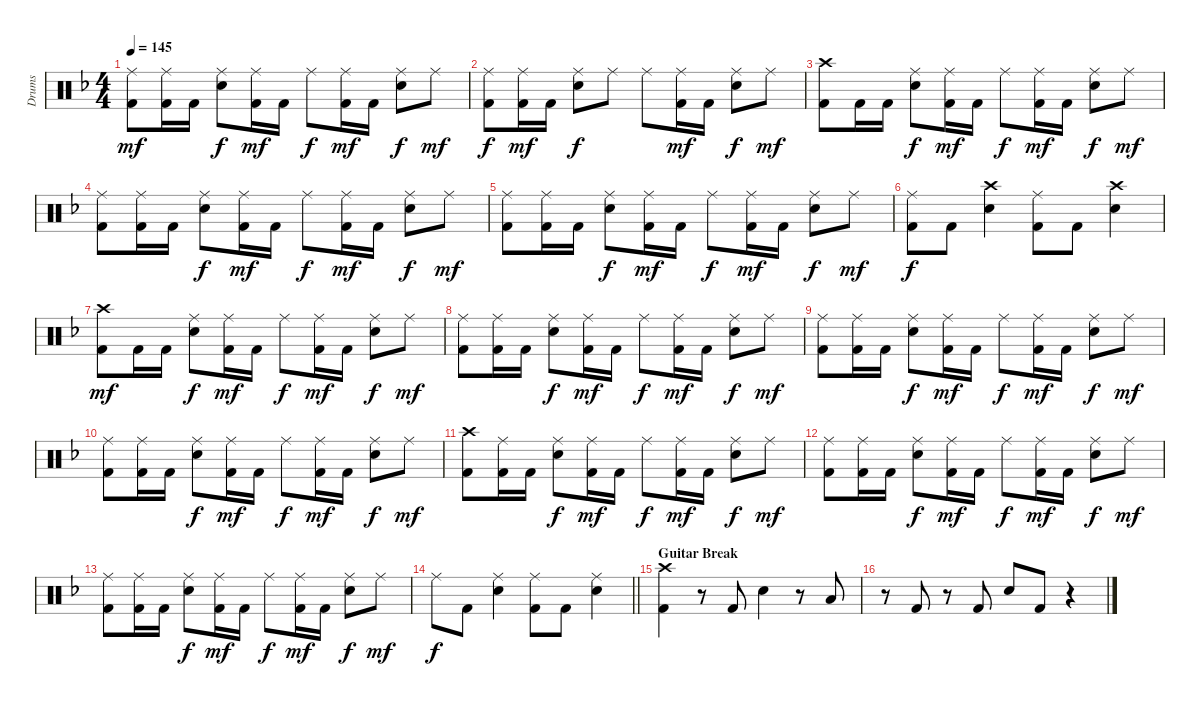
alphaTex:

\track ("Drums" "Drums") {instrument percussion}
\staff {score}
\articulation defaults
\ts (4 4)
\tempo 145
\clef neutral
\ks f
("Ride (middle)" "Kick (hit) 2").8{dy mf} ("Ride (middle)" "Kick (hit) 2").16 "Kick (hit) 2".16 ("Ride (middle)" "Electric Snare (hit)").8{dy f} ("Ride (middle)" "Kick (hit) 2").16{dy mf} "Kick (hit) 2".16 "Ride (middle)".8{dy f} ("Ride (middle)" "Kick (hit) 2").16{dy mf} "Kick (hit) 2".16 ("Ride (middle)" "Electric Snare (hit)").8{dy f} "Ride (middle)".8{dy mf} |
("Ride (middle)" "Kick (hit) 2").8{dy f} ("Ride (middle)" "Kick (hit) 2").16{dy mf} "Kick (hit) 2".16 ("Ride (middle)" "Electric Snare (hit)").8{dy f} "Ride (middle)".8 "Ride (middle)".8 ("Ride (middle)" "Kick (hit) 2").16{dy mf} "Kick (hit) 2".16 ("Ride (middle)" "Electric Snare (hit)").8{dy f} "Ride (middle)".8{dy mf} |
("Crash high (hit)" "Kick (hit) 2").8 "Kick (hit) 2".16 "Kick (hit) 2".16 ("Ride (middle)" "Electric Snare (hit)").8{dy f} ("Ride (middle)" "Kick (hit) 2").16{dy mf} "Kick (hit) 2".16 "Ride (middle)".8{dy f} ("Ride (middle)" "Kick (hit) 2").16{dy mf} "Kick (hit) 2".16 ("Ride (middle)" "Electric Snare (hit)").8{dy f} "Ride (middle)".8{dy mf} |
("Ride (middle)" "Kick (hit) 2").8 ("Ride (middle)" "Kick (hit) 2").16 "Kick (hit) 2".16 ("Ride (middle)" "Electric Snare (hit)").8{dy f} ("Ride (middle)" "Kick (hit) 2").16{dy mf} "Kick (hit) 2".16 "Ride (middle)".8{dy f} ("Ride (middle)" "Kick (hit) 2").16{dy mf} "Kick (hit) 2".16 ("Ride (middle)" "Electric Snare (hit)").8{dy f} "Ride (middle)".8{dy mf} |
("Ride (middle)" "Kick (hit) 2").8 ("Ride (middle)" "Kick (hit) 2").16 "Kick (hit) 2".16 ("Ride (middle)" "Electric Snare (hit)").8{dy f} ("Ride (middle)" "Kick (hit) 2").16{dy mf} "Kick (hit) 2".16 "Ride (middle)".8{dy f} ("Ride (middle)" "Kick (hit) 2").16{dy mf} "Kick (hit) 2".16 ("Ride (middle)" "Electric Snare (hit)").8{dy f} "Ride (middle)".8{dy mf} |
("Ride (middle)" "Kick (hit) 2").8{dy f} "Kick (hit) 2".8 ("Crash high (hit)" "Electric Snare (hit)").4 ("Ride (middle)" "Kick (hit) 2").8 "Kick (hit) 2".8 ("Crash high (hit)" "Electric Snare (hit)").4 |
("Crash high (hit)" "Kick (hit) 2").8{dy mf} "Kick (hit) 2".16 "Kick (hit) 2".16 ("Ride (middle)" "Electric Snare (hit)").8{dy f} ("Ride (middle)" "Kick (hit) 2").16{dy mf} "Kick (hit) 2".16 "Ride (middle)".8{dy f} ("Ride (middle)" "Kick (hit) 2").16{dy mf} "Kick (hit) 2".16 ("Ride (middle)" "Electric Snare (hit)").8{dy f} "Ride (middle)".8{dy mf} |
("Ride (middle)" "Kick (hit) 2").8 ("Ride (middle)" "Kick (hit) 2").16 "Kick (hit) 2".16 ("Ride (middle)" "Electric Snare (hit)").8{dy f} ("Ride (middle)" "Kick (hit) 2").16{dy mf} "Kick (hit) 2".16 "Ride (middle)".8{dy f} ("Ride (middle)" "Kick (hit) 2").16{dy mf} "Kick (hit) 2".16 ("Ride (middle)" "Electric Snare (hit)").8{dy f} "Ride (middle)".8{dy mf} |
("Ride (middle)" "Kick (hit) 2").8 ("Ride (middle)" "Kick (hit) 2").16 "Kick (hit) 2".16 ("Ride (middle)" "Electric Snare (hit)").8{dy f} ("Ride (middle)" "Kick (hit) 2").16{dy mf} "Kick (hit) 2".16 "Ride (middle)".8{dy f} ("Ride (middle)" "Kick (hit) 2").16{dy mf} "Kick (hit) 2".16 ("Ride (middle)" "Electric Snare (hit)").8{dy f} "Ride (middle)".8{dy mf} |
("Ride (middle)" "Kick (hit) 2").8 ("Ride (middle)" "Kick (hit) 2").16 "Kick (hit) 2".16 ("Ride (middle)" "Electric Snare (hit)").8{dy f} ("Ride (middle)" "Kick (hit) 2").16{dy mf} "Kick (hit) 2".16 "Ride (middle)".8{dy f} ("Ride (middle)" "Kick (hit) 2").16{dy mf} "Kick (hit) 2".16 ("Ride (middle)" "Electric Snare (hit)").8{dy f} "Ride (middle)".8{dy mf} |
("Crash high (hit)" "Kick (hit) 2").8 ("Ride (middle)" "Kick (hit) 2").16 "Kick (hit) 2".16 ("Ride (middle)" "Electric Snare (hit)").8{dy f} ("Ride (middle)" "Kick (hit) 2").16{dy mf} "Kick (hit) 2".16 "Ride (middle)".8{dy f} ("Ride (middle)" "Kick (hit) 2").16{dy mf} "Kick (hit) 2".16 ("Ride (middle)" "Electric Snare (hit)").8{dy f} "Ride (middle)".8{dy mf} |
("Ride (middle)" "Kick (hit) 2").8 ("Ride (middle)" "Kick (hit) 2").16 "Kick (hit) 2".16 ("Ride (middle)" "Electric Snare (hit)").8{dy f} ("Ride (middle)" "Kick (hit) 2").16{dy mf} "Kick (hit) 2".16 "Ride (middle)".8{dy f} ("Ride (middle)" "Kick (hit) 2").16{dy mf} "Kick (hit) 2".16 ("Ride (middle)" "Electric Snare (hit)").8{dy f} "Ride (middle)".8{dy mf} |
("Ride (middle)" "Kick (hit) 2").8 ("Ride (middle)" "Kick (hit) 2").16 "Kick (hit) 2".16 ("Ride (middle)" "Electric Snare (hit)").8{dy f} ("Ride (middle)" "Kick (hit) 2").16{dy mf} "Kick (hit) 2".16 "Ride (middle)".8{dy f} ("Ride (middle)" "Kick (hit) 2").16{dy mf} "Kick (hit) 2".16 ("Ride (middle)" "Electric Snare (hit)").8{dy f} "Ride (middle)".8{dy mf} |
\barLineRight lightlight "Ride (middle)".8{dy f} "Kick (hit) 2".8
("Ride (middle)" "Electric Snare (hit)").4 ("Ride (middle)" "Kick (hit) 2").8 "Kick (hit) 2".8 ("Ride (middle)" "Electric Snare (hit)").4 |
\section ("" "Guitar Break")
("Crash high (hit)" "Kick (hit) 2").4 r.8 "Kick (hit) 2".8 "Electric Snare (hit)".4 r.8 "Low Tom (hit)".8 |
r.8 "Kick (hit) 2".8 r.8 "Kick (hit) 2".8 "Electric Snare (hit)".8 "Kick (hit) 2".8 r.4
